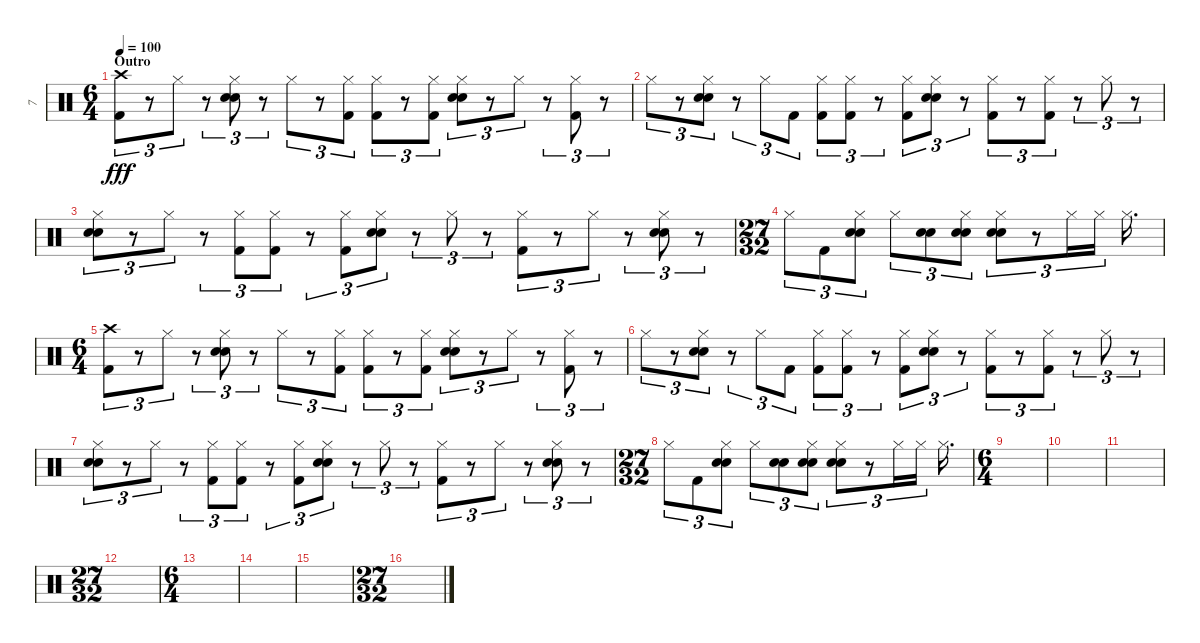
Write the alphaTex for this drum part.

\track ("7" "7") {instrument percussion}
\staff {score}
\articulation defaults
\ts (6 4)
\section ("" "Outro")
\tempo 100
\clef neutral
\ks c
("Crash high (hit)" "Kick (hit) 2").8{tu (3 2) dy fff} r.8{tu (3 2)} "Hi-Hat (closed)".8{tu (3 2)} r.8{tu (3 2)} ("Hi-Hat (closed)" "Hand Clap (hit)" "Electric Snare (hit)").8{tu (3 2)} r.8{tu (3 2)} "Hi-Hat (closed)".8{tu (3 2)} r.8{tu (3 2)} ("Hi-Hat (closed)" "Kick (hit) 2").8{tu (3 2)} ("Hi-Hat (closed)" "Kick (hit) 2").8{tu (3 2)} r.8{tu (3 2)} ("Hi-Hat (closed)" "Kick (hit) 2").8{tu (3 2)} ("Hi-Hat (closed)" "Hand Clap (hit)" "Electric Snare (hit)").8{tu (3 2)} r.8{tu (3 2)} "Hi-Hat (closed)".8{tu (3 2)} r.8{tu (3 2)} ("Hi-Hat (closed)" "Kick (hit) 2").8{tu (3 2)} r.8{tu (3 2)} |
"Hi-Hat (closed)".8{tu (3 2)} r.8{tu (3 2)} ("Hi-Hat (closed)" "Hand Clap (hit)" "Electric Snare (hit)").8{tu (3 2)} r.8{tu (3 2)} "Hi-Hat (closed)".8{tu (3 2)} "Kick (hit) 2".8{tu (3 2)} ("Hi-Hat (closed)" "Kick (hit) 2").8{tu (3 2)} ("Hi-Hat (closed)" "Kick (hit) 2").8{tu (3 2)} r.8{tu (3 2)} ("Hi-Hat (closed)" "Kick (hit) 2").8{tu (3 2)} ("Hi-Hat (closed)" "Hand Clap (hit)" "Electric Snare (hit)").8{tu (3 2)} r.8{tu (3 2)} ("Hi-Hat (closed)" "Kick (hit) 2").8{tu (3 2)} r.8{tu (3 2)} ("Hi-Hat (closed)" "Kick (hit) 2").8{tu (3 2)} r.8{tu (3 2)} "Hi-Hat (closed)".8{tu (3 2)} r.8{tu (3 2)} |
("Hi-Hat (closed)" "Hand Clap (hit)" "Electric Snare (hit)").8{tu (3 2)} r.8{tu (3 2)} "Hi-Hat (closed)".8{tu (3 2)} r.8{tu (3 2)} ("Hi-Hat (closed)" "Kick (hit) 2").8{tu (3 2)} ("Hi-Hat (closed)" "Kick (hit) 2").8{tu (3 2)} r.8{tu (3 2)} ("Hi-Hat (closed)" "Kick (hit) 2").8{tu (3 2)} ("Hi-Hat (closed)" "Hand Clap (hit)" "Electric Snare (hit)").8{tu (3 2)} r.8{tu (3 2)} "Hi-Hat (closed)".8{tu (3 2)} r.8{tu (3 2)} ("Hi-Hat (closed)" "Kick (hit) 2").8{tu (3 2)} r.8{tu (3 2)} "Hi-Hat (closed)".8{tu (3 2)} r.8{tu (3 2)} ("Hi-Hat (closed)" "Hand Clap (hit)" "Electric Snare (hit)").8{tu (3 2)} r.8{tu (3 2)} |
\ts (27 32)
"Hi-Hat (closed)".8{tu (3 2)} "Kick (hit) 2".8{tu (3 2)} ("Hi-Hat (closed)" "Hand Clap (hit)" "Electric Snare (hit)").8{tu (3 2)} "Hi-Hat (closed)".8{tu (3 2)} ("Hand Clap (hit)" "Electric Snare (hit)").8{tu (3 2)} ("Hi-Hat (closed)" "Hand Clap (hit)" "Electric Snare (hit)").8{tu (3 2)} ("Hi-Hat (closed)" "Hand Clap (hit)" "Electric Snare (hit)").8{tu (3 2)} r.8{tu (3 2)} "Hi-Hat (closed)".16{tu (3 2)} "Hi-Hat (closed)".16{tu (3 2)} "Hi-Hat (closed)".16{d} |
\ts (6 4)
("Crash high (hit)" "Kick (hit) 2").8{tu (3 2)} r.8{tu (3 2)} "Hi-Hat (closed)".8{tu (3 2)} r.8{tu (3 2)} ("Hi-Hat (closed)" "Hand Clap (hit)" "Electric Snare (hit)").8{tu (3 2)} r.8{tu (3 2)} "Hi-Hat (closed)".8{tu (3 2)} r.8{tu (3 2)} ("Hi-Hat (closed)" "Kick (hit) 2").8{tu (3 2)} ("Hi-Hat (closed)" "Kick (hit) 2").8{tu (3 2)} r.8{tu (3 2)} ("Hi-Hat (closed)" "Kick (hit) 2").8{tu (3 2)} ("Hi-Hat (closed)" "Hand Clap (hit)" "Electric Snare (hit)").8{tu (3 2)} r.8{tu (3 2)} "Hi-Hat (closed)".8{tu (3 2)} r.8{tu (3 2)} ("Hi-Hat (closed)" "Kick (hit) 2").8{tu (3 2)} r.8{tu (3 2)} |
"Hi-Hat (closed)".8{tu (3 2)} r.8{tu (3 2)} ("Hi-Hat (closed)" "Hand Clap (hit)" "Electric Snare (hit)").8{tu (3 2)} r.8{tu (3 2)} "Hi-Hat (closed)".8{tu (3 2)} "Kick (hit) 2".8{tu (3 2)} ("Hi-Hat (closed)" "Kick (hit) 2").8{tu (3 2)} ("Hi-Hat (closed)" "Kick (hit) 2").8{tu (3 2)} r.8{tu (3 2)} ("Hi-Hat (closed)" "Kick (hit) 2").8{tu (3 2)} ("Hi-Hat (closed)" "Hand Clap (hit)" "Electric Snare (hit)").8{tu (3 2)} r.8{tu (3 2)} ("Hi-Hat (closed)" "Kick (hit) 2").8{tu (3 2)} r.8{tu (3 2)} ("Hi-Hat (closed)" "Kick (hit) 2").8{tu (3 2)} r.8{tu (3 2)} "Hi-Hat (closed)".8{tu (3 2)} r.8{tu (3 2)} |
("Hi-Hat (closed)" "Hand Clap (hit)" "Electric Snare (hit)").8{tu (3 2)} r.8{tu (3 2)} "Hi-Hat (closed)".8{tu (3 2)} r.8{tu (3 2)} ("Hi-Hat (closed)" "Kick (hit) 2").8{tu (3 2)} ("Hi-Hat (closed)" "Kick (hit) 2").8{tu (3 2)} r.8{tu (3 2)} ("Hi-Hat (closed)" "Kick (hit) 2").8{tu (3 2)} ("Hi-Hat (closed)" "Hand Clap (hit)" "Electric Snare (hit)").8{tu (3 2)} r.8{tu (3 2)} "Hi-Hat (closed)".8{tu (3 2)} r.8{tu (3 2)} ("Hi-Hat (closed)" "Kick (hit) 2").8{tu (3 2)} r.8{tu (3 2)} "Hi-Hat (closed)".8{tu (3 2)} r.8{tu (3 2)} ("Hi-Hat (closed)" "Hand Clap (hit)" "Electric Snare (hit)").8{tu (3 2)} r.8{tu (3 2)} |
\ts (27 32)
"Hi-Hat (closed)".8{tu (3 2)} "Kick (hit) 2".8{tu (3 2)} ("Hi-Hat (closed)" "Hand Clap (hit)" "Electric Snare (hit)").8{tu (3 2)} "Hi-Hat (closed)".8{tu (3 2)} ("Hand Clap (hit)" "Electric Snare (hit)").8{tu (3 2)} ("Hi-Hat (closed)" "Hand Clap (hit)" "Electric Snare (hit)").8{tu (3 2)} ("Hi-Hat (closed)" "Hand Clap (hit)" "Electric Snare (hit)").8{tu (3 2)} r.8{tu (3 2)} "Hi-Hat (closed)".16{tu (3 2)} "Hi-Hat (closed)".16{tu (3 2)} "Hi-Hat (closed)".16{d} |
\ts (6 4)
|
|
|
\ts (27 32)
|
\ts (6 4)
|
|
|
\ts (27 32)
